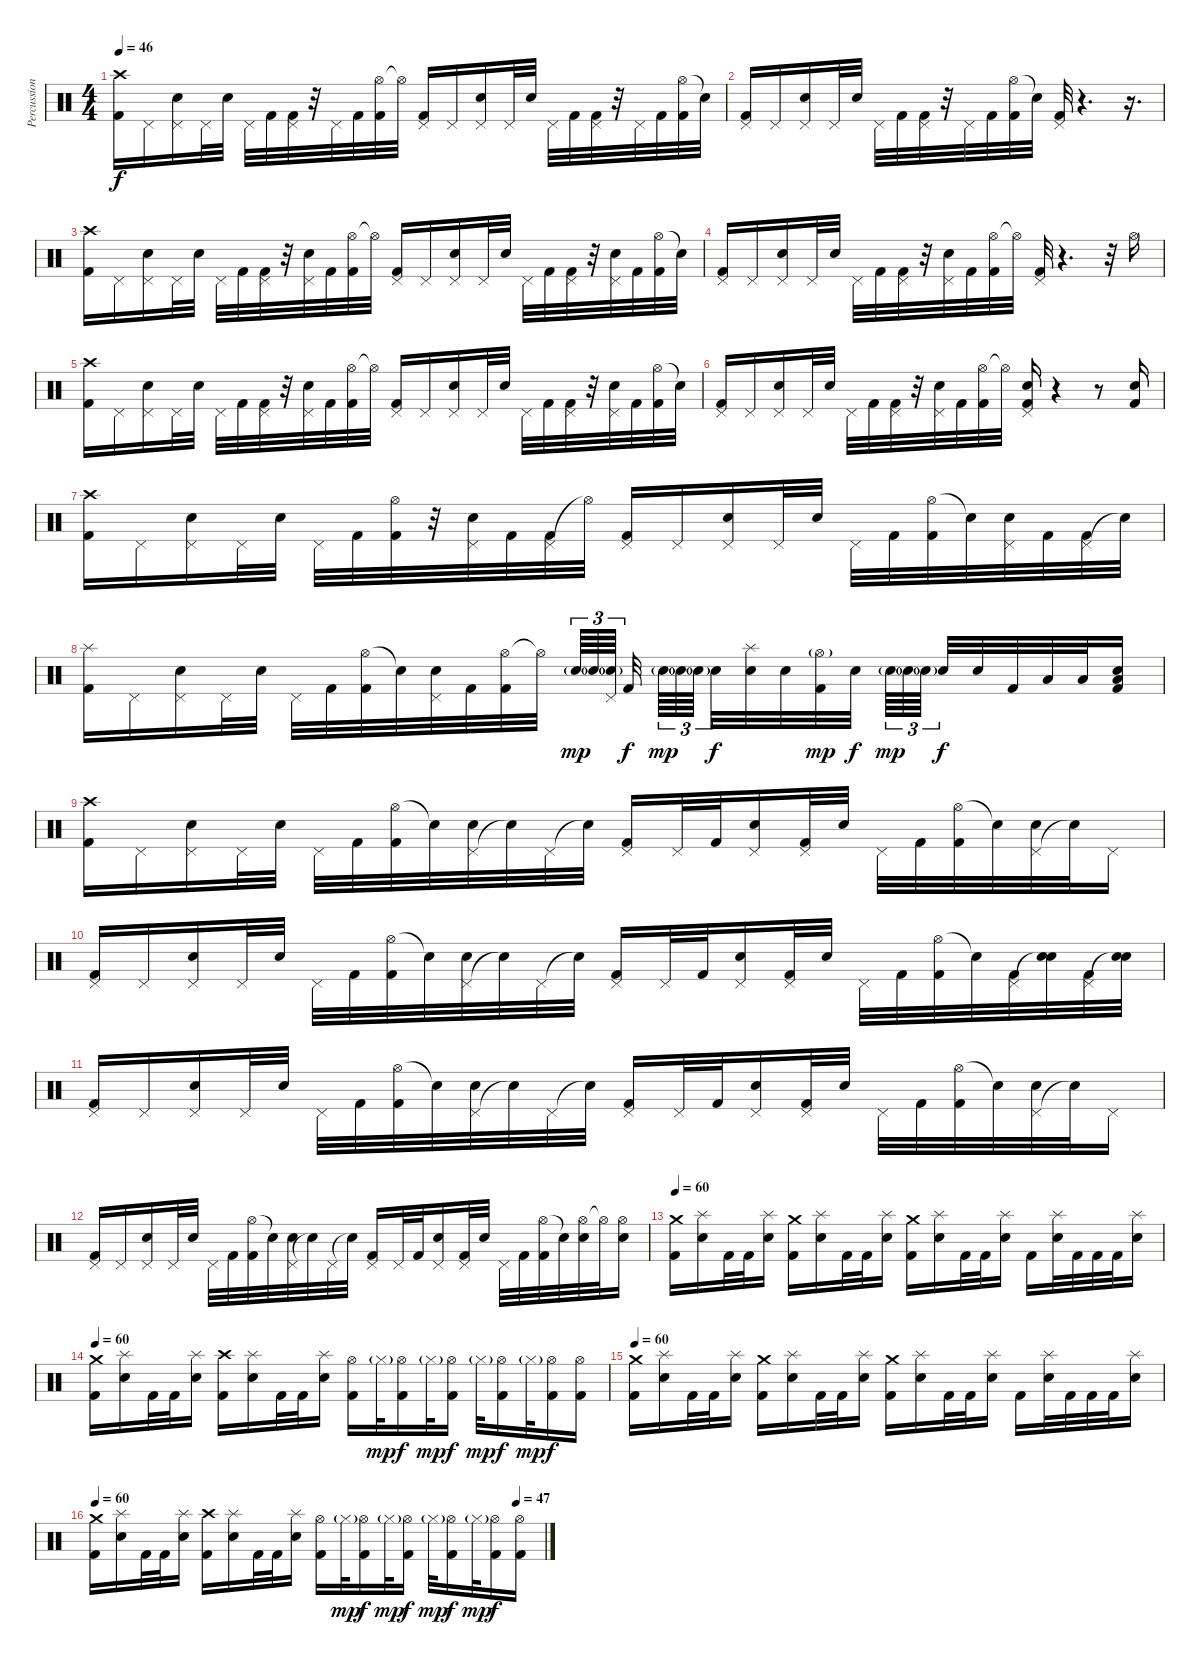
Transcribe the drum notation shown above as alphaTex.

\track ("Percussion" "Percussion") {instrument percussion}
\staff {score}
\articulation defaults
\ts (4 4)
\tempo 46
\clef neutral
\ks c
("Crash high (hit)" "Kick (hit) 2").16{dy f} "Pedal Hi-Hat (hit)".16 ("Pedal Hi-Hat (hit)" "Electric Snare (hit)").16 "Pedal Hi-Hat (hit)".32 "Electric Snare (hit)".32 "Pedal Hi-Hat (hit)".32 "Kick (hit) 2".32 ("Pedal Hi-Hat (hit)" "Kick (hit) 2").32 r.32 "Pedal Hi-Hat (hit)".32 "Kick (hit) 2".32 ("Hi-Hat (open)" "Kick (hit) 2").32 "Hi-Hat (open)"{t}.32 ("Pedal Hi-Hat (hit)" "Kick (hit) 2").16 "Pedal Hi-Hat (hit)".16 ("Pedal Hi-Hat (hit)" "Electric Snare (hit)").16 "Pedal Hi-Hat (hit)".32 "Electric Snare (hit)".32 "Pedal Hi-Hat (hit)".32 "Kick (hit) 2".32 ("Pedal Hi-Hat (hit)" "Kick (hit) 2").32 r.32 "Pedal Hi-Hat (hit)".32 "Kick (hit) 2".32 ("Hi-Hat (open)" "Kick (hit) 2").32 "Snare (hit)"{t}.32 |
("Pedal Hi-Hat (hit)" "Kick (hit) 2").16 "Pedal Hi-Hat (hit)".16 ("Pedal Hi-Hat (hit)" "Electric Snare (hit)").16 "Pedal Hi-Hat (hit)".32 "Electric Snare (hit)".32 "Pedal Hi-Hat (hit)".32 "Kick (hit) 2".32 ("Pedal Hi-Hat (hit)" "Kick (hit) 2").32 r.32 "Pedal Hi-Hat (hit)".32 "Kick (hit) 2".32 ("Hi-Hat (open)" "Kick (hit) 2").32 "Snare (hit)"{t}.32 ("Pedal Hi-Hat (hit)" "Kick (hit) 2").32 r.4{d} r.16{d} |
("Crash high (hit)" "Kick (hit) 2").16 "Pedal Hi-Hat (hit)".16 ("Pedal Hi-Hat (hit)" "Electric Snare (hit)").16 "Pedal Hi-Hat (hit)".32 "Electric Snare (hit)".32 "Pedal Hi-Hat (hit)".32 "Kick (hit) 2".32 ("Pedal Hi-Hat (hit)" "Kick (hit) 2").32 r.32 ("Pedal Hi-Hat (hit)" "Electric Snare (hit)").32 "Kick (hit) 2".32 ("Hi-Hat (open)" "Kick (hit) 2").32 "Hi-Hat (open)"{t}.32 ("Pedal Hi-Hat (hit)" "Kick (hit) 2").16 "Pedal Hi-Hat (hit)".16 ("Pedal Hi-Hat (hit)" "Electric Snare (hit)").16 "Pedal Hi-Hat (hit)".32 "Electric Snare (hit)".32 "Pedal Hi-Hat (hit)".32 "Kick (hit) 2".32 ("Pedal Hi-Hat (hit)" "Kick (hit) 2").32 r.32 ("Pedal Hi-Hat (hit)" "Electric Snare (hit)").32 "Kick (hit) 2".32 ("Hi-Hat (open)" "Kick (hit) 2").32 "Snare (hit)"{t}.32 |
("Pedal Hi-Hat (hit)" "Kick (hit) 2").16 "Pedal Hi-Hat (hit)".16 ("Pedal Hi-Hat (hit)" "Electric Snare (hit)").16 "Pedal Hi-Hat (hit)".32 "Electric Snare (hit)".32 "Pedal Hi-Hat (hit)".32 "Kick (hit) 2".32 ("Pedal Hi-Hat (hit)" "Kick (hit) 2").32 r.32 ("Pedal Hi-Hat (hit)" "Electric Snare (hit)").32 "Kick (hit) 2".32 ("Hi-Hat (open)" "Kick (hit) 2").32 "Hi-Hat (open)"{t}.32 ("Pedal Hi-Hat (hit)" "Kick (hit) 2").32 r.4{d} r.32 "Hi-Hat (open)".16 |
("Crash high (hit)" "Kick (hit) 2").16 "Pedal Hi-Hat (hit)".16 ("Pedal Hi-Hat (hit)" "Electric Snare (hit)").16 "Pedal Hi-Hat (hit)".32 "Electric Snare (hit)".32 "Pedal Hi-Hat (hit)".32 "Kick (hit) 2".32 ("Pedal Hi-Hat (hit)" "Kick (hit) 2").32 r.32 ("Pedal Hi-Hat (hit)" "Electric Snare (hit)").32 "Kick (hit) 2".32 ("Hi-Hat (open)" "Kick (hit) 2").32 "Hi-Hat (open)"{t}.32 ("Pedal Hi-Hat (hit)" "Kick (hit) 2").16 "Pedal Hi-Hat (hit)".16 ("Pedal Hi-Hat (hit)" "Electric Snare (hit)").16 "Pedal Hi-Hat (hit)".32 "Electric Snare (hit)".32 "Pedal Hi-Hat (hit)".32 "Kick (hit) 2".32 ("Pedal Hi-Hat (hit)" "Kick (hit) 2").32 r.32 ("Pedal Hi-Hat (hit)" "Electric Snare (hit)").32 "Kick (hit) 2".32 ("Hi-Hat (open)" "Kick (hit) 2").32 "Snare (hit)"{t}.32 |
("Pedal Hi-Hat (hit)" "Kick (hit) 2").16 "Pedal Hi-Hat (hit)".16 ("Pedal Hi-Hat (hit)" "Electric Snare (hit)").16 "Pedal Hi-Hat (hit)".32 "Electric Snare (hit)".32 "Pedal Hi-Hat (hit)".32 "Kick (hit) 2".32 ("Pedal Hi-Hat (hit)" "Kick (hit) 2").32 r.32 ("Pedal Hi-Hat (hit)" "Electric Snare (hit)").32 "Kick (hit) 2".32 ("Hi-Hat (open)" "Kick (hit) 2").32 "Hi-Hat (open)"{t}.32 ("Pedal Hi-Hat (hit)" "Electric Snare (hit)" "Kick (hit) 2").16 r.4 r.8 ("Electric Snare (hit)" "Kick (hit) 2").16 |
("Crash high (hit)" "Kick (hit) 2").16 "Pedal Hi-Hat (hit)".16 ("Pedal Hi-Hat (hit)" "Electric Snare (hit)").16 "Pedal Hi-Hat (hit)".32 "Electric Snare (hit)".32 "Pedal Hi-Hat (hit)".32 "Kick (hit) 2".32 ("Hi-Hat (open)" "Kick (hit) 2").32 r.32 ("Pedal Hi-Hat (hit)" "Electric Snare (hit)").32 "Kick (hit) 2".32 ("Pedal Hi-Hat (hit)" "Kick (hit) 2").32 "Hi-Hat (open)"{t}.32 ("Pedal Hi-Hat (hit)" "Kick (hit) 2").16 "Pedal Hi-Hat (hit)".16 ("Pedal Hi-Hat (hit)" "Electric Snare (hit)").16 "Pedal Hi-Hat (hit)".32 "Electric Snare (hit)".32 "Pedal Hi-Hat (hit)".32 "Kick (hit) 2".32 ("Hi-Hat (open)" "Kick (hit) 2").32 "Snare (hit)"{t}.32 ("Pedal Hi-Hat (hit)" "Electric Snare (hit)").32 "Kick (hit) 2".32 ("Pedal Hi-Hat (hit)" "Kick (hit) 2").32 "Snare (hit)"{t}.32 |
("Splash (hit)" "Kick (hit) 2").16 "Pedal Hi-Hat (hit)".16 ("Pedal Hi-Hat (hit)" "Electric Snare (hit)").16 "Pedal Hi-Hat (hit)".32 "Electric Snare (hit)".32 "Pedal Hi-Hat (hit)".32 "Kick (hit) 2".32 ("Hi-Hat (open)" "Kick (hit) 2").32 "Snare (hit)"{t}.32 ("Pedal Hi-Hat (hit)" "Electric Snare (hit)").32 "Kick (hit) 2".32 ("Hi-Hat (open)" "Kick (hit) 2").32 "Hi-Hat (open)"{t}.32 "Electric Snare (hit)"{g}.64{tu (3 2) dy mp} "Electric Snare (hit)"{g}.64{tu (3 2)} ("Pedal Hi-Hat (hit)" "Electric Snare (hit)"{g}).64{tu (3 2)} "Kick (hit) 2".32{dy f} "Electric Snare (hit)"{g}.64{tu (3 2) dy mp} "Electric Snare (hit)"{g}.64{tu (3 2)} "Electric Snare (hit)"{g}.64{tu (3 2)} "Electric Snare (hit)".32{dy f} ("Splash (hit)" "Electric Snare (hit)").32 "Electric Snare (hit)".32 ("Hi-Hat (open)"{g} "Kick (hit) 2").32{dy mp} "Electric Snare (hit)".32{dy f} "Electric Snare (hit)"{g}.64{tu (3 2) dy mp} "Electric Snare (hit)"{g}.64{tu (3 2)} "Electric Snare (hit)"{g}.64{tu (3 2)} "Electric Snare (hit)".32{dy f} "Electric Snare (hit)".32 "Kick (hit) 2".32 "Low Tom (hit)".32 "Low Tom (hit)".32 ("Electric Snare (hit)" "Low Floor Tom (hit)" "Kick (hit) 2").16 |
("Crash high (hit)" "Kick (hit) 2").16 "Pedal Hi-Hat (hit)".16 ("Pedal Hi-Hat (hit)" "Electric Snare (hit)").16 "Pedal Hi-Hat (hit)".32 "Electric Snare (hit)".32 "Pedal Hi-Hat (hit)".32 "Kick (hit) 2".32 ("Hi-Hat (open)" "Kick (hit) 2").32 "Snare (hit)"{t}.32 ("Pedal Hi-Hat (hit)" "Electric Snare (hit)").32 "Snare (hit)"{t}.32 "Pedal Hi-Hat (hit)".32 "Snare (hit)"{t}.32 ("Pedal Hi-Hat (hit)" "Kick (hit) 2").16 "Pedal Hi-Hat (hit)".32 "Kick (hit) 2".32 ("Pedal Hi-Hat (hit)" "Electric Snare (hit)").16 ("Pedal Hi-Hat (hit)" "Kick (hit) 2").32 "Electric Snare (hit)".32 "Pedal Hi-Hat (hit)".32 "Kick (hit) 2".32 ("Hi-Hat (open)" "Kick (hit) 2").32 "Snare (hit)"{t}.32 ("Pedal Hi-Hat (hit)" "Electric Snare (hit)").32 "Snare (hit)"{t}.32 "Pedal Hi-Hat (hit)".16 |
("Pedal Hi-Hat (hit)" "Kick (hit) 2").16 "Pedal Hi-Hat (hit)".16 ("Pedal Hi-Hat (hit)" "Electric Snare (hit)").16 "Pedal Hi-Hat (hit)".32 "Electric Snare (hit)".32 "Pedal Hi-Hat (hit)".32 "Kick (hit) 2".32 ("Hi-Hat (open)" "Kick (hit) 2").32 "Snare (hit)"{t}.32 ("Pedal Hi-Hat (hit)" "Electric Snare (hit)").32 "Snare (hit)"{t}.32 "Pedal Hi-Hat (hit)".32 "Snare (hit)"{t}.32 ("Pedal Hi-Hat (hit)" "Kick (hit) 2").16 "Pedal Hi-Hat (hit)".32 "Kick (hit) 2".32 ("Pedal Hi-Hat (hit)" "Electric Snare (hit)").16 ("Pedal Hi-Hat (hit)" "Kick (hit) 2").32 "Electric Snare (hit)".32 "Pedal Hi-Hat (hit)".32 "Kick (hit) 2".32 ("Hi-Hat (open)" "Kick (hit) 2").32 "Snare (hit)"{t}.32 ("Pedal Hi-Hat (hit)" "Kick (hit) 2").32 ("Snare (hit)"{t} "Electric Snare (hit)").32 ("Pedal Hi-Hat (hit)" "Kick (hit) 2").32 ("Snare (hit)"{t} "Electric Snare (hit)").32 |
("Pedal Hi-Hat (hit)" "Kick (hit) 2").16 "Pedal Hi-Hat (hit)".16 ("Pedal Hi-Hat (hit)" "Electric Snare (hit)").16 "Pedal Hi-Hat (hit)".32 "Electric Snare (hit)".32 "Pedal Hi-Hat (hit)".32 "Kick (hit) 2".32 ("Hi-Hat (open)" "Kick (hit) 2").32 "Snare (hit)"{t}.32 ("Pedal Hi-Hat (hit)" "Electric Snare (hit)").32 "Snare (hit)"{t}.32 "Pedal Hi-Hat (hit)".32 "Snare (hit)"{t}.32 ("Pedal Hi-Hat (hit)" "Kick (hit) 2").16 "Pedal Hi-Hat (hit)".32 "Kick (hit) 2".32 ("Pedal Hi-Hat (hit)" "Electric Snare (hit)").16 ("Pedal Hi-Hat (hit)" "Kick (hit) 2").32 "Electric Snare (hit)".32 "Pedal Hi-Hat (hit)".32 "Kick (hit) 2".32 ("Hi-Hat (open)" "Kick (hit) 2").32 "Snare (hit)"{t}.32 ("Pedal Hi-Hat (hit)" "Electric Snare (hit)").32 "Snare (hit)"{t}.32 "Pedal Hi-Hat (hit)".16 |
("Pedal Hi-Hat (hit)" "Kick (hit) 2").16 "Pedal Hi-Hat (hit)".16 ("Pedal Hi-Hat (hit)" "Electric Snare (hit)").16 "Pedal Hi-Hat (hit)".32 "Electric Snare (hit)".32 "Pedal Hi-Hat (hit)".32 "Kick (hit) 2".32 ("Hi-Hat (open)" "Kick (hit) 2").32 "Snare (hit)"{t}.32 ("Pedal Hi-Hat (hit)" "Electric Snare (hit)").32 "Snare (hit)"{t}.32 "Pedal Hi-Hat (hit)".32 "Snare (hit)"{t}.32 ("Pedal Hi-Hat (hit)" "Kick (hit) 2").16 "Pedal Hi-Hat (hit)".32 "Kick (hit) 2".32 ("Pedal Hi-Hat (hit)" "Electric Snare (hit)").16 ("Pedal Hi-Hat (hit)" "Kick (hit) 2").32 "Electric Snare (hit)".32 "Pedal Hi-Hat (hit)".32 "Kick (hit) 2".32 ("Hi-Hat (open)" "Kick (hit) 2").32 "Snare (hit)"{t}.32 ("Hi-Hat (open)" "Electric Snare (hit)").32 "Hi-Hat (open)"{t}.32 ("Hi-Hat (open)" "Electric Snare (hit)").16 |
\tempo 60
("Crash medium (hit)" "Kick (hit) 2").16 ("Splash (hit)" "Electric Snare (hit)").16 "Kick (hit) 2".32 "Kick (hit) 2".32 ("Splash (hit)" "Electric Snare (hit)").16 ("Crash medium (hit)" "Kick (hit) 2").16 ("Splash (hit)" "Electric Snare (hit)").16 "Kick (hit) 2".32 "Kick (hit) 2".32 ("Splash (hit)" "Electric Snare (hit)").16 ("Crash medium (hit)" "Kick (hit) 2").16 ("Splash (hit)" "Electric Snare (hit)").16 "Kick (hit) 2".32 "Kick (hit) 2".32 ("Splash (hit)" "Electric Snare (hit)").16 "Kick (hit) 2".16 ("Splash (hit)" "Electric Snare (hit)").32 "Kick (hit) 2".32 "Kick (hit) 2".32 "Kick (hit) 2".32 ("Splash (hit)" "Electric Snare (hit)").16 |
\tempo 60
("Crash medium (hit)" "Kick (hit) 2").16 ("Splash (hit)" "Electric Snare (hit)").16 "Kick (hit) 2".32 "Kick (hit) 2".32 ("Splash (hit)" "Electric Snare (hit)").16 ("Crash high (hit)" "Kick (hit) 2").16 ("Splash (hit)" "Electric Snare (hit)").16 "Kick (hit) 2".32 "Kick (hit) 2".32 ("Splash (hit)" "Electric Snare (hit)").16 ("Hi-Hat (open)" "Kick (hit) 2").16 "Hi-Hat (closed)"{g}.32{dy mp} ("Hi-Hat (open)" "Kick (hit) 2").16{dy f} "Hi-Hat (closed)"{g}.32{dy mp} ("Hi-Hat (open)" "Kick (hit) 2").16{dy f} "Hi-Hat (closed)"{g}.32{dy mp} ("Hi-Hat (open)" "Kick (hit) 2").16{dy f} "Hi-Hat (closed)"{g}.32{dy mp} ("Hi-Hat (open)" "Kick (hit) 2").16{dy f} ("Hi-Hat (open)" "Kick (hit) 2").16 |
\tempo 60
("Crash medium (hit)" "Kick (hit) 2").16 ("Splash (hit)" "Electric Snare (hit)").16 "Kick (hit) 2".32 "Kick (hit) 2".32 ("Splash (hit)" "Electric Snare (hit)").16 ("Crash medium (hit)" "Kick (hit) 2").16 ("Splash (hit)" "Electric Snare (hit)").16 "Kick (hit) 2".32 "Kick (hit) 2".32 ("Splash (hit)" "Electric Snare (hit)").16 ("Crash medium (hit)" "Kick (hit) 2").16 ("Splash (hit)" "Electric Snare (hit)").16 "Kick (hit) 2".32 "Kick (hit) 2".32 ("Splash (hit)" "Electric Snare (hit)").16 "Kick (hit) 2".16 ("Splash (hit)" "Electric Snare (hit)").32 "Kick (hit) 2".32 "Kick (hit) 2".32 "Kick (hit) 2".32 ("Splash (hit)" "Electric Snare (hit)").16 |
\tempo 60
\tempo (47 0.9375)
("Crash medium (hit)" "Kick (hit) 2").16 ("Splash (hit)" "Electric Snare (hit)").16 "Kick (hit) 2".32 "Kick (hit) 2".32 ("Splash (hit)" "Electric Snare (hit)").16 ("Crash high (hit)" "Kick (hit) 2").16 ("Splash (hit)" "Electric Snare (hit)").16 "Kick (hit) 2".32 "Kick (hit) 2".32 ("Splash (hit)" "Electric Snare (hit)").16 ("Hi-Hat (open)" "Kick (hit) 2").16 "Hi-Hat (closed)"{g}.32{dy mp} ("Hi-Hat (open)" "Kick (hit) 2").16{dy f} "Hi-Hat (closed)"{g}.32{dy mp} ("Hi-Hat (open)" "Kick (hit) 2").16{dy f} "Hi-Hat (closed)"{g}.32{dy mp} ("Hi-Hat (open)" "Kick (hit) 2").16{dy f} "Hi-Hat (closed)"{g}.32{dy mp} ("Hi-Hat (open)" "Kick (hit) 2").16{dy f} ("Hi-Hat (open)" "Kick (hit) 2").16
